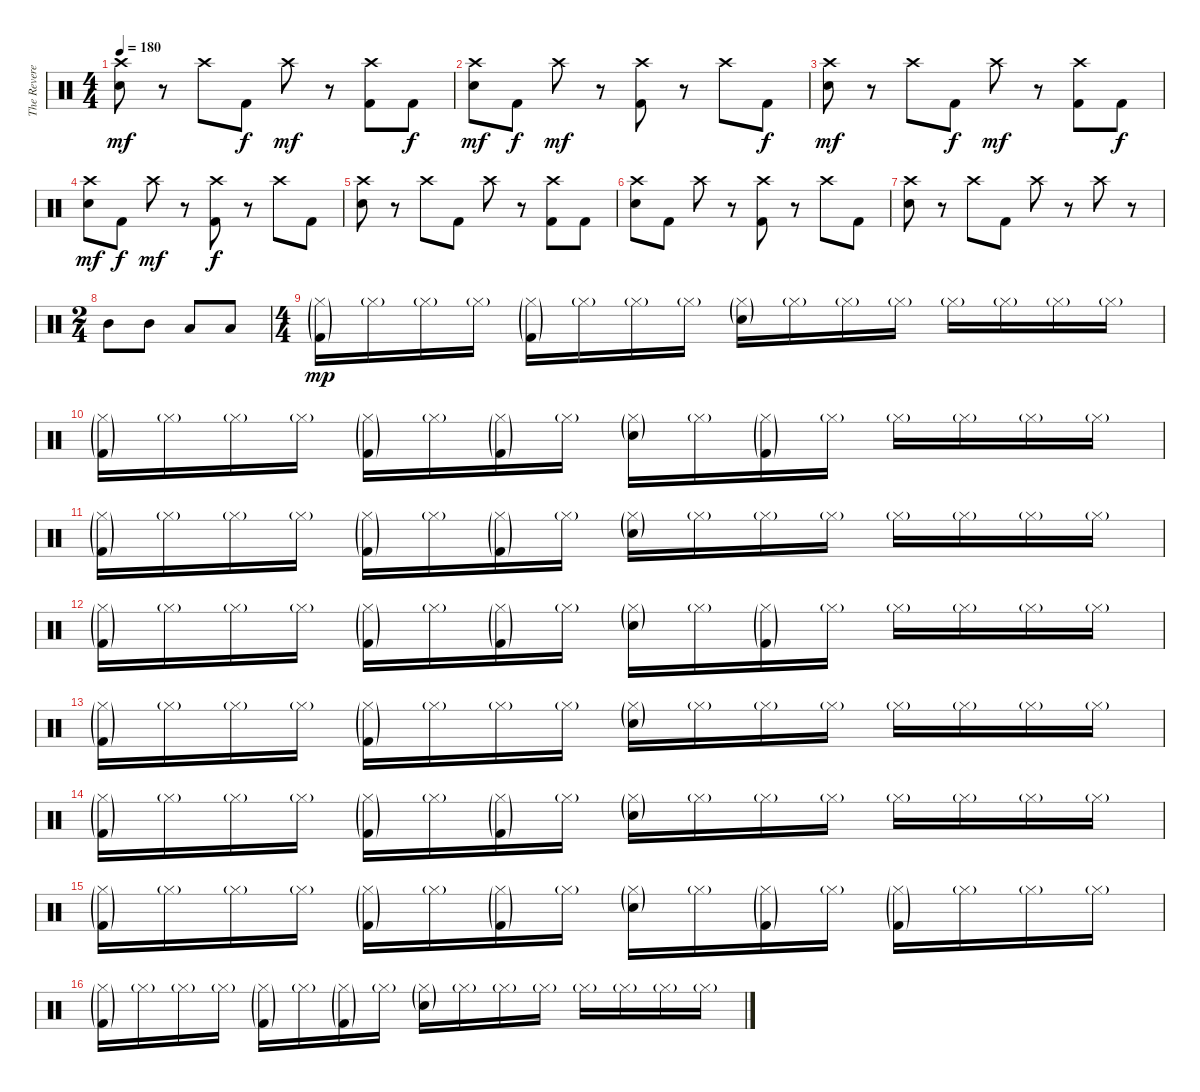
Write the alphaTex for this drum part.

\track ("The Reverend" "The Revere") {instrument percussion}
\staff {score}
\articulation defaults
\ts (4 4)
\tempo 180
\clef neutral
\ks c
("Crash high (hit)" "Snare (hit) 2").8{dy mf} r.8 "Crash high (hit)".8 "Kick (hit) 2".8{dy f} "Crash high (hit)".8{dy mf} r.8 ("Crash high (hit)" "Kick (hit) 2").8 "Kick (hit) 2".8{dy f} |
("Crash high (hit)" "Snare (hit) 2").8{dy mf} "Kick (hit) 2".8{dy f} "Crash high (hit)".8{dy mf} r.8 ("Crash high (hit)" "Kick (hit) 2").8 r.8 "Crash high (hit)".8 "Kick (hit) 2".8{dy f} |
("Crash high (hit)" "Snare (hit) 2").8{dy mf} r.8 "Crash high (hit)".8 "Kick (hit) 2".8{dy f} "Crash high (hit)".8{dy mf} r.8 ("Crash high (hit)" "Kick (hit) 2").8 "Kick (hit) 2".8{dy f} |
("Crash high (hit)" "Snare (hit) 2").8{dy mf} "Kick (hit) 2".8{dy f} "Crash high (hit)".8{dy mf} r.8 ("Crash high (hit)" "Kick (hit) 2").8{dy f} r.8 "Crash high (hit)".8 "Kick (hit) 2".8 |
("Crash high (hit)" "Snare (hit) 2").8 r.8 "Crash high (hit)".8 "Kick (hit) 2".8 "Crash high (hit)".8 r.8 ("Crash high (hit)" "Kick (hit) 2").8 "Kick (hit) 2".8 |
("Crash high (hit)" "Snare (hit) 2").8 "Kick (hit) 2".8 "Crash high (hit)".8 r.8 ("Crash high (hit)" "Kick (hit) 2").8 r.8 "Crash high (hit)".8 "Kick (hit) 2".8 |
("Crash high (hit)" "Snare (hit) 2").8 r.8 "Crash high (hit)".8 "Kick (hit) 2".8 "Crash high (hit)".8 r.8 "Crash high (hit)".8 r.8 |
\ts (2 4)
"Mid Tom (hit)".8 "Mid Tom (hit)".8 "Low Tom (hit)".8 "Low Tom (hit)".8 |
\ts (4 4)
("Hi-Hat (closed)"{g} "Kick (hit) 2"{g}).16{dy mp} "Hi-Hat (closed)"{g}.16 "Hi-Hat (closed)"{g}.16 "Hi-Hat (closed)"{g}.16 ("Hi-Hat (closed)"{g} "Kick (hit) 2"{g}).16 "Hi-Hat (closed)"{g}.16 "Hi-Hat (closed)"{g}.16 "Hi-Hat (closed)"{g}.16 ("Hi-Hat (closed)"{g} "Snare (hit) 2"{g}).16 "Hi-Hat (closed)"{g}.16 "Hi-Hat (closed)"{g}.16 "Hi-Hat (closed)"{g}.16 "Hi-Hat (closed)"{g}.16 "Hi-Hat (closed)"{g}.16 "Hi-Hat (closed)"{g}.16 "Hi-Hat (closed)"{g}.16 |
("Hi-Hat (closed)"{g} "Kick (hit) 2"{g}).16 "Hi-Hat (closed)"{g}.16 "Hi-Hat (closed)"{g}.16 "Hi-Hat (closed)"{g}.16 ("Hi-Hat (closed)"{g} "Kick (hit) 2"{g}).16 "Hi-Hat (closed)"{g}.16 ("Hi-Hat (closed)"{g} "Kick (hit) 2"{g}).16 "Hi-Hat (closed)"{g}.16 ("Hi-Hat (closed)"{g} "Snare (hit) 2"{g}).16 "Hi-Hat (closed)"{g}.16 ("Hi-Hat (closed)"{g} "Kick (hit) 2"{g}).16 "Hi-Hat (closed)"{g}.16 "Hi-Hat (closed)"{g}.16 "Hi-Hat (closed)"{g}.16 "Hi-Hat (closed)"{g}.16 "Hi-Hat (closed)"{g}.16 |
("Hi-Hat (closed)"{g} "Kick (hit) 2"{g}).16 "Hi-Hat (closed)"{g}.16 "Hi-Hat (closed)"{g}.16 "Hi-Hat (closed)"{g}.16 ("Hi-Hat (closed)"{g} "Kick (hit) 2"{g}).16 "Hi-Hat (closed)"{g}.16 ("Hi-Hat (closed)"{g} "Kick (hit) 2"{g}).16 "Hi-Hat (closed)"{g}.16 ("Hi-Hat (closed)"{g} "Snare (hit) 2"{g}).16 "Hi-Hat (closed)"{g}.16 "Hi-Hat (closed)"{g}.16 "Hi-Hat (closed)"{g}.16 "Hi-Hat (closed)"{g}.16 "Hi-Hat (closed)"{g}.16 "Hi-Hat (closed)"{g}.16 "Hi-Hat (closed)"{g}.16 |
("Hi-Hat (closed)"{g} "Kick (hit) 2"{g}).16 "Hi-Hat (closed)"{g}.16 "Hi-Hat (closed)"{g}.16 "Hi-Hat (closed)"{g}.16 ("Hi-Hat (closed)"{g} "Kick (hit) 2"{g}).16 "Hi-Hat (closed)"{g}.16 ("Hi-Hat (closed)"{g} "Kick (hit) 2"{g}).16 "Hi-Hat (closed)"{g}.16 ("Hi-Hat (closed)"{g} "Snare (hit) 2"{g}).16 "Hi-Hat (closed)"{g}.16 ("Hi-Hat (closed)"{g} "Kick (hit) 2"{g}).16 "Hi-Hat (closed)"{g}.16 "Hi-Hat (closed)"{g}.16 "Hi-Hat (closed)"{g}.16 "Hi-Hat (closed)"{g}.16 "Hi-Hat (closed)"{g}.16 |
("Hi-Hat (closed)"{g} "Kick (hit) 2"{g}).16 "Hi-Hat (closed)"{g}.16 "Hi-Hat (closed)"{g}.16 "Hi-Hat (closed)"{g}.16 ("Hi-Hat (closed)"{g} "Kick (hit) 2"{g}).16 "Hi-Hat (closed)"{g}.16 "Hi-Hat (closed)"{g}.16 "Hi-Hat (closed)"{g}.16 ("Hi-Hat (closed)"{g} "Snare (hit) 2"{g}).16 "Hi-Hat (closed)"{g}.16 "Hi-Hat (closed)"{g}.16 "Hi-Hat (closed)"{g}.16 "Hi-Hat (closed)"{g}.16 "Hi-Hat (closed)"{g}.16 "Hi-Hat (closed)"{g}.16 "Hi-Hat (closed)"{g}.16 |
("Hi-Hat (closed)"{g} "Kick (hit) 2"{g}).16 "Hi-Hat (closed)"{g}.16 "Hi-Hat (closed)"{g}.16 "Hi-Hat (closed)"{g}.16 ("Hi-Hat (closed)"{g} "Kick (hit) 2"{g}).16 "Hi-Hat (closed)"{g}.16 ("Hi-Hat (closed)"{g} "Kick (hit) 2"{g}).16 "Hi-Hat (closed)"{g}.16 ("Hi-Hat (closed)"{g} "Snare (hit) 2"{g}).16 "Hi-Hat (closed)"{g}.16 "Hi-Hat (closed)"{g}.16 "Hi-Hat (closed)"{g}.16 "Hi-Hat (closed)"{g}.16 "Hi-Hat (closed)"{g}.16 "Hi-Hat (closed)"{g}.16 "Hi-Hat (closed)"{g}.16 |
("Hi-Hat (closed)"{g} "Kick (hit) 2"{g}).16 "Hi-Hat (closed)"{g}.16 "Hi-Hat (closed)"{g}.16 "Hi-Hat (closed)"{g}.16 ("Hi-Hat (closed)"{g} "Kick (hit) 2"{g}).16 "Hi-Hat (closed)"{g}.16 ("Hi-Hat (closed)"{g} "Kick (hit) 2"{g}).16 "Hi-Hat (closed)"{g}.16 ("Hi-Hat (closed)"{g} "Snare (hit) 2"{g}).16 "Hi-Hat (closed)"{g}.16 ("Hi-Hat (closed)"{g} "Kick (hit) 2"{g}).16 "Hi-Hat (closed)"{g}.16 ("Hi-Hat (closed)"{g} "Kick (hit) 2"{g}).16 "Hi-Hat (closed)"{g}.16 "Hi-Hat (closed)"{g}.16 "Hi-Hat (closed)"{g}.16 |
("Hi-Hat (closed)"{g} "Kick (hit) 2"{g}).16 "Hi-Hat (closed)"{g}.16 "Hi-Hat (closed)"{g}.16 "Hi-Hat (closed)"{g}.16 ("Hi-Hat (closed)"{g} "Kick (hit) 2"{g}).16 "Hi-Hat (closed)"{g}.16 ("Hi-Hat (closed)"{g} "Kick (hit) 2"{g}).16 "Hi-Hat (closed)"{g}.16 ("Hi-Hat (closed)"{g} "Snare (hit) 2"{g}).16 "Hi-Hat (closed)"{g}.16 "Hi-Hat (closed)"{g}.16 "Hi-Hat (closed)"{g}.16 "Hi-Hat (closed)"{g}.16 "Hi-Hat (closed)"{g}.16 "Hi-Hat (closed)"{g}.16 "Hi-Hat (closed)"{g}.16
